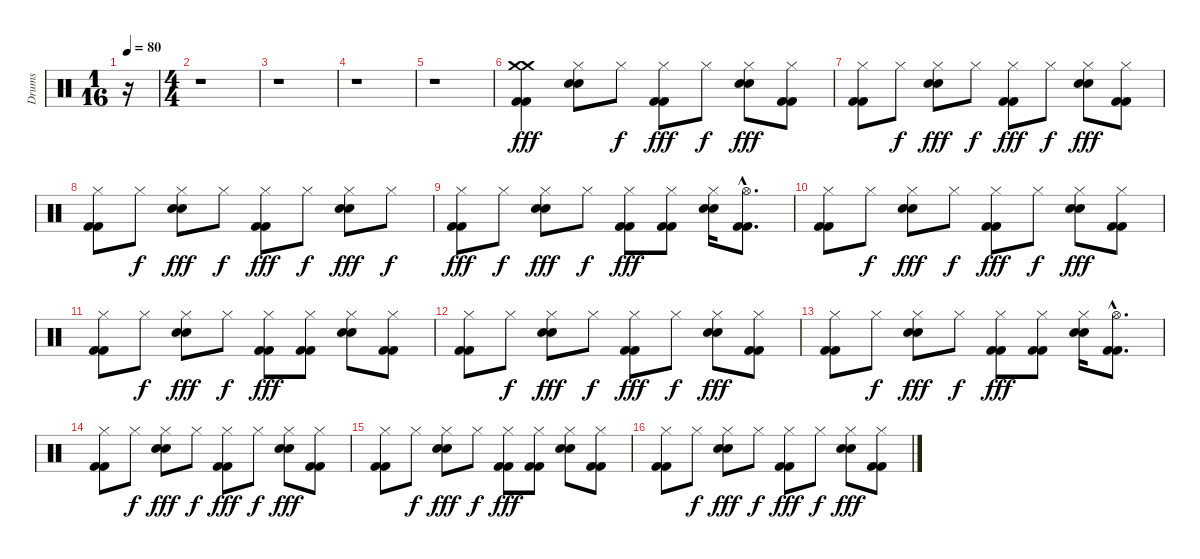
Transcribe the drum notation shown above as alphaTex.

\track ("Drums" "Drums") {instrument percussion}
\staff {score}
\articulation defaults
\ts (1 16)
\tempo 80
\clef neutral
\ks c
r.16{dy fff} |
\ts (4 4)
r.1 |
r.1 |
r.1 |
r.1 |
("Crash medium (hit)" "Crash medium (hit)" "Kick (hit) 2" "Kick (hit) 2").4 ("Hi-Hat (closed)" "Electric Snare (hit)" "Electric Snare (hit)").8 "Hi-Hat (closed)".8{dy f} ("Hi-Hat (closed)" "Kick (hit) 2" "Kick (hit) 2").8{dy fff} "Hi-Hat (closed)".8{dy f} ("Hi-Hat (closed)" "Electric Snare (hit)" "Electric Snare (hit)").8{dy fff} ("Hi-Hat (closed)" "Kick (hit) 2" "Kick (hit) 2").8 |
("Hi-Hat (closed)" "Kick (hit) 2" "Kick (hit) 2").8 "Hi-Hat (closed)".8{dy f} ("Hi-Hat (closed)" "Electric Snare (hit)" "Electric Snare (hit)").8{dy fff} "Hi-Hat (closed)".8{dy f} ("Hi-Hat (closed)" "Kick (hit) 2" "Kick (hit) 2").8{dy fff} "Hi-Hat (closed)".8{dy f} ("Hi-Hat (closed)" "Electric Snare (hit)" "Electric Snare (hit)").8{dy fff} ("Hi-Hat (closed)" "Kick (hit) 2" "Kick (hit) 2").8 |
("Hi-Hat (closed)" "Kick (hit) 2" "Kick (hit) 2").8 "Hi-Hat (closed)".8{dy f} ("Hi-Hat (closed)" "Electric Snare (hit)" "Electric Snare (hit)").8{dy fff} "Hi-Hat (closed)".8{dy f} ("Hi-Hat (closed)" "Kick (hit) 2" "Kick (hit) 2").8{dy fff} "Hi-Hat (closed)".8{dy f} ("Hi-Hat (closed)" "Electric Snare (hit)" "Electric Snare (hit)").8{dy fff} "Hi-Hat (closed)".8{dy f} |
("Hi-Hat (closed)" "Kick (hit) 2" "Kick (hit) 2").8{dy fff} "Hi-Hat (closed)".8{dy f} ("Hi-Hat (closed)" "Electric Snare (hit)" "Electric Snare (hit)").8{dy fff} "Hi-Hat (closed)".8{dy f} ("Hi-Hat (closed)" "Kick (hit) 2" "Kick (hit) 2").8{dy fff} ("Hi-Hat (closed)" "Kick (hit) 2" "Kick (hit) 2").8 ("Hi-Hat (closed)" "Electric Snare (hit)" "Electric Snare (hit)").16 ("Hi-Hat (open)"{hac} "Kick (hit) 2"{hac} "Kick (hit) 2"{hac}).8{d} |
("Hi-Hat (closed)" "Kick (hit) 2" "Kick (hit) 2").8 "Hi-Hat (closed)".8{dy f} ("Hi-Hat (closed)" "Electric Snare (hit)" "Electric Snare (hit)").8{dy fff} "Hi-Hat (closed)".8{dy f} ("Hi-Hat (closed)" "Kick (hit) 2" "Kick (hit) 2").8{dy fff} "Hi-Hat (closed)".8{dy f} ("Hi-Hat (closed)" "Electric Snare (hit)" "Electric Snare (hit)").8{dy fff} ("Hi-Hat (closed)" "Kick (hit) 2" "Kick (hit) 2").8 |
("Hi-Hat (closed)" "Kick (hit) 2" "Kick (hit) 2").8 "Hi-Hat (closed)".8{dy f} ("Hi-Hat (closed)" "Electric Snare (hit)" "Electric Snare (hit)").8{dy fff} "Hi-Hat (closed)".8{dy f} ("Hi-Hat (closed)" "Kick (hit) 2" "Kick (hit) 2").8{dy fff} ("Hi-Hat (closed)" "Kick (hit) 2" "Kick (hit) 2").8 ("Hi-Hat (closed)" "Electric Snare (hit)" "Electric Snare (hit)").8 ("Hi-Hat (closed)" "Kick (hit) 2" "Kick (hit) 2").8 |
("Hi-Hat (closed)" "Kick (hit) 2" "Kick (hit) 2").8 "Hi-Hat (closed)".8{dy f} ("Hi-Hat (closed)" "Electric Snare (hit)" "Electric Snare (hit)").8{dy fff} "Hi-Hat (closed)".8{dy f} ("Hi-Hat (closed)" "Kick (hit) 2" "Kick (hit) 2").8{dy fff} "Hi-Hat (closed)".8{dy f} ("Hi-Hat (closed)" "Electric Snare (hit)" "Electric Snare (hit)").8{dy fff} ("Hi-Hat (closed)" "Kick (hit) 2" "Kick (hit) 2").8 |
("Hi-Hat (closed)" "Kick (hit) 2" "Kick (hit) 2").8 "Hi-Hat (closed)".8{dy f} ("Hi-Hat (closed)" "Electric Snare (hit)" "Electric Snare (hit)").8{dy fff} "Hi-Hat (closed)".8{dy f} ("Hi-Hat (closed)" "Kick (hit) 2" "Kick (hit) 2").8{dy fff} ("Hi-Hat (closed)" "Kick (hit) 2" "Kick (hit) 2").8 ("Hi-Hat (closed)" "Electric Snare (hit)" "Electric Snare (hit)").16 ("Hi-Hat (open)"{hac} "Kick (hit) 2"{hac} "Kick (hit) 2"{hac}).8{d} |
("Hi-Hat (closed)" "Kick (hit) 2" "Kick (hit) 2").8 "Hi-Hat (closed)".8{dy f} ("Hi-Hat (closed)" "Electric Snare (hit)" "Electric Snare (hit)").8{dy fff} "Hi-Hat (closed)".8{dy f} ("Hi-Hat (closed)" "Kick (hit) 2" "Kick (hit) 2").8{dy fff} "Hi-Hat (closed)".8{dy f} ("Hi-Hat (closed)" "Electric Snare (hit)" "Electric Snare (hit)").8{dy fff} ("Hi-Hat (closed)" "Kick (hit) 2" "Kick (hit) 2").8 |
("Hi-Hat (closed)" "Kick (hit) 2" "Kick (hit) 2").8 "Hi-Hat (closed)".8{dy f} ("Hi-Hat (closed)" "Electric Snare (hit)" "Electric Snare (hit)").8{dy fff} "Hi-Hat (closed)".8{dy f} ("Hi-Hat (closed)" "Kick (hit) 2" "Kick (hit) 2").8{dy fff} ("Hi-Hat (closed)" "Kick (hit) 2" "Kick (hit) 2").8 ("Hi-Hat (closed)" "Electric Snare (hit)" "Electric Snare (hit)").8 ("Hi-Hat (closed)" "Kick (hit) 2" "Kick (hit) 2").8 |
("Hi-Hat (closed)" "Kick (hit) 2" "Kick (hit) 2").8 "Hi-Hat (closed)".8{dy f} ("Hi-Hat (closed)" "Electric Snare (hit)" "Electric Snare (hit)").8{dy fff} "Hi-Hat (closed)".8{dy f} ("Hi-Hat (closed)" "Kick (hit) 2" "Kick (hit) 2").8{dy fff} "Hi-Hat (closed)".8{dy f} ("Hi-Hat (closed)" "Electric Snare (hit)" "Electric Snare (hit)").8{dy fff} ("Hi-Hat (closed)" "Kick (hit) 2" "Kick (hit) 2").8
